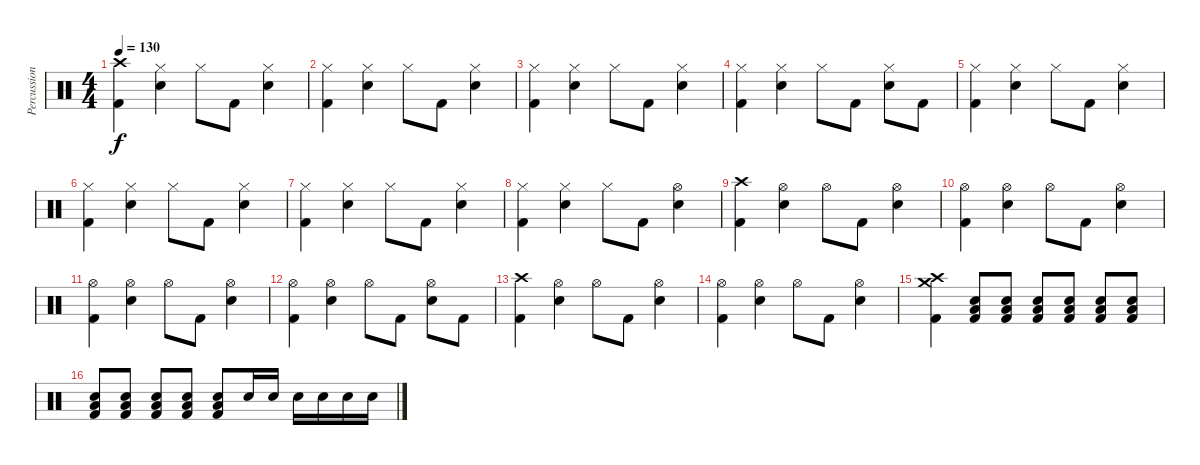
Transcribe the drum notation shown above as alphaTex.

\track ("Percussion" "Percussion") {instrument percussion}
\staff {score}
\articulation defaults
\ts (4 4)
\tempo 130
\clef neutral
\ks c
("Crash high (hit)" "Kick (hit) 2").4{dy f} ("Hi-Hat (closed)" "Snare (hit) 2").4 "Hi-Hat (closed)".8 "Kick (hit) 2".8 ("Hi-Hat (closed)" "Snare (hit) 2").4 |
("Hi-Hat (closed)" "Kick (hit) 2").4 ("Hi-Hat (closed)" "Snare (hit) 2").4 "Hi-Hat (closed)".8 "Kick (hit) 2".8 ("Hi-Hat (closed)" "Snare (hit) 2").4 |
("Hi-Hat (closed)" "Kick (hit) 2").4 ("Hi-Hat (closed)" "Snare (hit) 2").4 "Hi-Hat (closed)".8 "Kick (hit) 2".8 ("Hi-Hat (closed)" "Snare (hit) 2").4 |
("Hi-Hat (closed)" "Kick (hit) 2").4 ("Hi-Hat (closed)" "Snare (hit) 2").4 "Hi-Hat (closed)".8 "Kick (hit) 2".8 ("Hi-Hat (closed)" "Snare (hit) 2").8 "Kick (hit) 2".8 |
("Hi-Hat (closed)" "Kick (hit) 2").4 ("Hi-Hat (closed)" "Snare (hit) 2").4 "Hi-Hat (closed)".8 "Kick (hit) 2".8 ("Hi-Hat (closed)" "Snare (hit) 2").4 |
("Hi-Hat (closed)" "Kick (hit) 2").4 ("Hi-Hat (closed)" "Snare (hit) 2").4 "Hi-Hat (closed)".8 "Kick (hit) 2".8 ("Hi-Hat (closed)" "Snare (hit) 2").4 |
("Hi-Hat (closed)" "Kick (hit) 2").4 ("Hi-Hat (closed)" "Snare (hit) 2").4 "Hi-Hat (closed)".8 "Kick (hit) 2".8 ("Hi-Hat (closed)" "Snare (hit) 2").4 |
("Hi-Hat (closed)" "Kick (hit) 2").4 ("Hi-Hat (closed)" "Snare (hit) 2").4 "Hi-Hat (closed)".8 "Kick (hit) 2".8 ("Hi-Hat (open)" "Snare (hit) 2").4 |
("Crash high (hit)" "Kick (hit) 2").4 ("Hi-Hat (open)" "Snare (hit) 2").4 "Hi-Hat (open)".8 "Kick (hit) 2".8 ("Hi-Hat (open)" "Snare (hit) 2").4 |
("Hi-Hat (open)" "Kick (hit) 2").4 ("Hi-Hat (open)" "Snare (hit) 2").4 "Hi-Hat (open)".8 "Kick (hit) 2".8 ("Hi-Hat (open)" "Snare (hit) 2").4 |
("Hi-Hat (open)" "Kick (hit) 2").4 ("Hi-Hat (open)" "Snare (hit) 2").4 "Hi-Hat (open)".8 "Kick (hit) 2".8 ("Hi-Hat (open)" "Snare (hit) 2").4 |
("Hi-Hat (open)" "Kick (hit) 2").4 ("Hi-Hat (open)" "Snare (hit) 2").4 "Hi-Hat (open)".8 "Kick (hit) 2".8 ("Hi-Hat (open)" "Snare (hit) 2").8 "Kick (hit) 2".8 |
("Crash high (hit)" "Kick (hit) 2").4 ("Hi-Hat (open)" "Snare (hit) 2").4 "Hi-Hat (open)".8 "Kick (hit) 2".8 ("Hi-Hat (open)" "Snare (hit) 2").4 |
("Hi-Hat (open)" "Kick (hit) 2").4 ("Hi-Hat (open)" "Snare (hit) 2").4 "Hi-Hat (open)".8 "Kick (hit) 2".8 ("Hi-Hat (open)" "Snare (hit) 2").4 |
("Crash high (hit)" "Crash medium (hit)" "Kick (hit) 2").4 ("Snare (hit) 2" "Low Floor Tom (hit)" "Kick (hit) 2").8 ("Snare (hit) 2" "Low Floor Tom (hit)" "Kick (hit) 2").8 ("Snare (hit) 2" "Low Floor Tom (hit)" "Kick (hit) 2").8 ("Snare (hit) 2" "Low Floor Tom (hit)" "Kick (hit) 2").8 ("Snare (hit) 2" "Low Floor Tom (hit)" "Kick (hit) 2").8 ("Snare (hit) 2" "Low Floor Tom (hit)" "Kick (hit) 2").8 |
("Snare (hit) 2" "Low Floor Tom (hit)" "Kick (hit) 2").8 ("Snare (hit) 2" "Low Floor Tom (hit)" "Kick (hit) 2").8 ("Snare (hit) 2" "Low Floor Tom (hit)" "Kick (hit) 2").8 ("Snare (hit) 2" "Low Floor Tom (hit)" "Kick (hit) 2").8 ("Snare (hit) 2" "Low Floor Tom (hit)" "Kick (hit) 2").8 "Snare (hit) 2".16 "Snare (hit) 2".16 "Snare (hit) 2".16 "Snare (hit) 2".16 "Snare (hit) 2".16 "Snare (hit) 2".16
